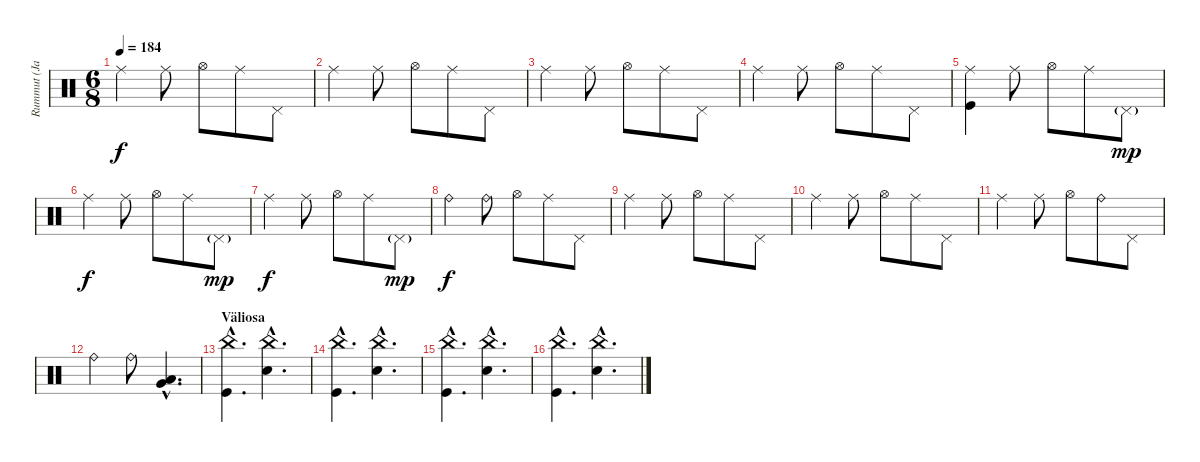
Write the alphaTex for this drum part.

\track ("Rummut (Janne)" "Rummut (Ja") {instrument percussion}
\staff {score}
\articulation defaults
\ts (6 8)
\tempo 184
\clef neutral
\ks c "Ride (middle)".4{dy f} "Ride (middle)".8 "Hi-Hat (open)".8 "Ride (middle)".8 "Pedal Hi-Hat (hit)".8
|
"Ride (middle)".4 "Ride (middle)".8 "Hi-Hat (open)".8 "Ride (middle)".8 "Pedal Hi-Hat (hit)".8 |
"Ride (middle)".4 "Ride (middle)".8 "Hi-Hat (open)".8 "Ride (middle)".8 "Pedal Hi-Hat (hit)".8 |
"Ride (middle)".4 "Ride (middle)".8 "Hi-Hat (open)".8 "Ride (middle)".8 "Pedal Hi-Hat (hit)".8 |
("Ride (middle)" "Kick (hit)").4 "Ride (middle)".8 "Hi-Hat (open)".8 "Ride (middle)".8 "Pedal Hi-Hat (hit)"{g}.8{dy mp} |
"Ride (middle)".4{dy f} "Ride (middle)".8 "Hi-Hat (open)".8 "Ride (middle)".8 "Pedal Hi-Hat (hit)"{g}.8{dy mp} |
"Ride (middle)".4{dy f} "Ride (middle)".8 "Hi-Hat (open)".8 "Ride (middle)".8 "Pedal Hi-Hat (hit)"{g}.8{dy mp} |
"Ride (bell)".4{dy f} "Ride (bell)".8 "Hi-Hat (open)".8 "Ride (middle)".8 "Pedal Hi-Hat (hit)".8 |
"Ride (middle)".4 "Ride (middle)".8 "Hi-Hat (open)".8 "Ride (middle)".8 "Pedal Hi-Hat (hit)".8 |
"Ride (middle)".4 "Ride (middle)".8 "Hi-Hat (open)".8 "Ride (middle)".8 "Pedal Hi-Hat (hit)".8 |
"Ride (middle)".4 "Ride (middle)".8 "Hi-Hat (open)".8 "Ride (bell)".8 "Pedal Hi-Hat (hit)".8 |
"Ride (bell)".4 "Ride (bell)".8 ("Low Tom (hit)"{hac} "Very Low Tom (hit)"{hac}).4{d} |
\section ("" "Väliosa")
("China (hit)"{hac} "Kick (hit)"{hac}).4{d} ("China (hit)"{hac} "Snare (hit) 2"{hac}).4{d} |
("China (hit)"{hac} "Kick (hit)"{hac}).4{d} ("China (hit)"{hac} "Snare (hit) 2"{hac}).4{d} |
("China (hit)"{hac} "Kick (hit)"{hac}).4{d} ("China (hit)"{hac} "Snare (hit) 2"{hac}).4{d} |
("China (hit)"{hac} "Kick (hit)"{hac}).4{d} ("China (hit)"{hac} "Snare (hit) 2"{hac}).4{d}
